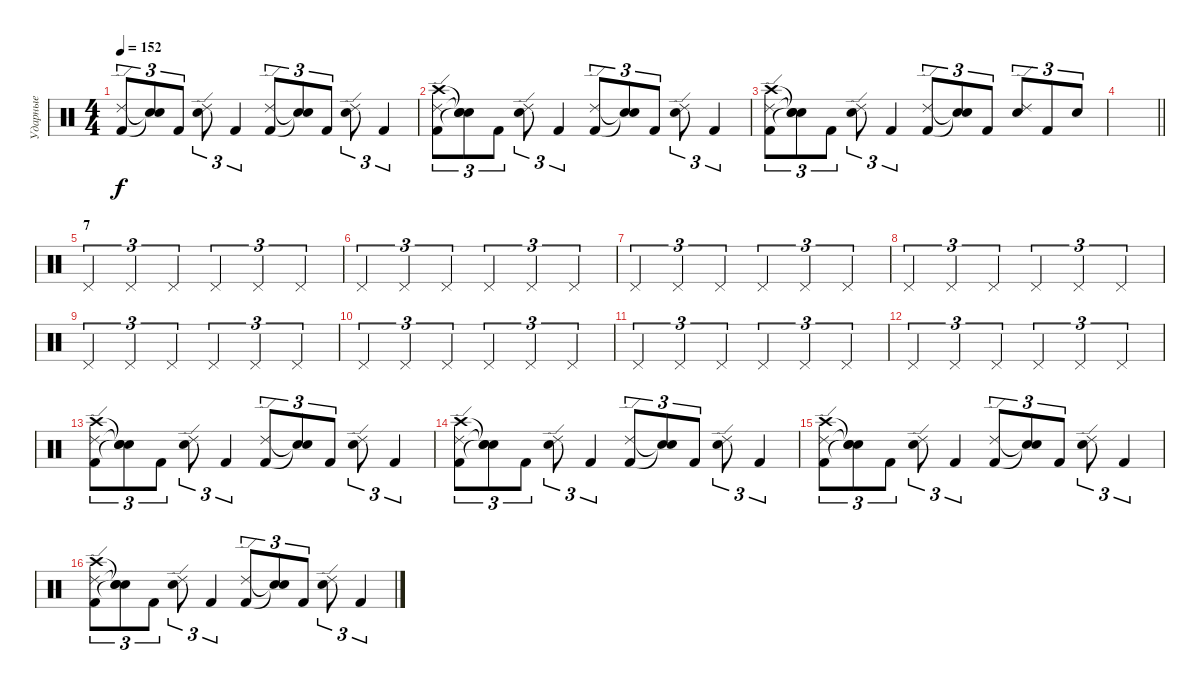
\track ("Ударные" "Ударные") {instrument percussion}
\staff {score}
\articulation defaults
\ts (4 4)
\tempo 152
\clef neutral
\ks c
("Kick (hit) 2" "Ride (edge) 2").8{tu (3 2) dy f} ("Snare (hit)"{t} "Snare (hit)"{t}).8{tu (3 2)} "Kick (hit) 2".8{tu (3 2)} ("Electric Snare (hit)" "Ride (edge) 2").8{tu (3 2)} "Kick (hit) 2".4{tu (3 2)} ("Kick (hit) 2" "Ride (edge) 2").8{tu (3 2)} ("Snare (hit)"{t} "Snare (hit)"{t}).8{tu (3 2)} "Kick (hit) 2".8{tu (3 2)} ("Electric Snare (hit)" "Ride (edge) 2").8{tu (3 2)} "Kick (hit) 2".4{tu (3 2)} |
("Kick (hit) 2" "Crash high (hit)" "Ride (edge) 2").8{tu (3 2)} ("Snare (hit)"{t} "Snare (hit)"{t} "Snare (hit)"{t}).8{tu (3 2)} "Kick (hit) 2".8{tu (3 2)} ("Electric Snare (hit)" "Ride (edge) 2").8{tu (3 2)} "Kick (hit) 2".4{tu (3 2)} ("Kick (hit) 2" "Ride (edge) 2").8{tu (3 2)} ("Snare (hit)"{t} "Snare (hit)"{t}).8{tu (3 2)} "Kick (hit) 2".8{tu (3 2)} ("Electric Snare (hit)" "Ride (edge) 2").8{tu (3 2)} "Kick (hit) 2".4{tu (3 2)} |
("Kick (hit) 2" "Crash high (hit)" "Ride (edge) 2").8{tu (3 2)} ("Snare (hit)"{t} "Snare (hit)"{t} "Snare (hit)"{t}).8{tu (3 2)} "Kick (hit) 2".8{tu (3 2)} ("Electric Snare (hit)" "Ride (edge) 2").8{tu (3 2)} "Kick (hit) 2".4{tu (3 2)} ("Kick (hit) 2" "Ride (edge) 2").8{tu (3 2)} ("Snare (hit)"{t} "Snare (hit)"{t}).8{tu (3 2)} "Kick (hit) 2".8{tu (3 2)} ("Electric Snare (hit)" "Ride (edge) 2").8{tu (3 2)} "Kick (hit) 2".8{tu (3 2)} "Electric Snare (hit)".8{tu (3 2)} |
\barLineRight lightlight
|
\section ("" "7")
"Pedal Hi-Hat (hit)".4{tu (3 2)} "Pedal Hi-Hat (hit)".4{tu (3 2)} "Pedal Hi-Hat (hit)".4{tu (3 2)} "Pedal Hi-Hat (hit)".4{tu (3 2)} "Pedal Hi-Hat (hit)".4{tu (3 2)} "Pedal Hi-Hat (hit)".4{tu (3 2)} |
"Pedal Hi-Hat (hit)".4{tu (3 2)} "Pedal Hi-Hat (hit)".4{tu (3 2)} "Pedal Hi-Hat (hit)".4{tu (3 2)} "Pedal Hi-Hat (hit)".4{tu (3 2)} "Pedal Hi-Hat (hit)".4{tu (3 2)} "Pedal Hi-Hat (hit)".4{tu (3 2)} |
"Pedal Hi-Hat (hit)".4{tu (3 2)} "Pedal Hi-Hat (hit)".4{tu (3 2)} "Pedal Hi-Hat (hit)".4{tu (3 2)} "Pedal Hi-Hat (hit)".4{tu (3 2)} "Pedal Hi-Hat (hit)".4{tu (3 2)} "Pedal Hi-Hat (hit)".4{tu (3 2)} |
"Pedal Hi-Hat (hit)".4{tu (3 2)} "Pedal Hi-Hat (hit)".4{tu (3 2)} "Pedal Hi-Hat (hit)".4{tu (3 2)} "Pedal Hi-Hat (hit)".4{tu (3 2)} "Pedal Hi-Hat (hit)".4{tu (3 2)} "Pedal Hi-Hat (hit)".4{tu (3 2)} |
"Pedal Hi-Hat (hit)".4{tu (3 2)} "Pedal Hi-Hat (hit)".4{tu (3 2)} "Pedal Hi-Hat (hit)".4{tu (3 2)} "Pedal Hi-Hat (hit)".4{tu (3 2)} "Pedal Hi-Hat (hit)".4{tu (3 2)} "Pedal Hi-Hat (hit)".4{tu (3 2)} |
"Pedal Hi-Hat (hit)".4{tu (3 2)} "Pedal Hi-Hat (hit)".4{tu (3 2)} "Pedal Hi-Hat (hit)".4{tu (3 2)} "Pedal Hi-Hat (hit)".4{tu (3 2)} "Pedal Hi-Hat (hit)".4{tu (3 2)} "Pedal Hi-Hat (hit)".4{tu (3 2)} |
"Pedal Hi-Hat (hit)".4{tu (3 2)} "Pedal Hi-Hat (hit)".4{tu (3 2)} "Pedal Hi-Hat (hit)".4{tu (3 2)} "Pedal Hi-Hat (hit)".4{tu (3 2)} "Pedal Hi-Hat (hit)".4{tu (3 2)} "Pedal Hi-Hat (hit)".4{tu (3 2)} |
"Pedal Hi-Hat (hit)".4{tu (3 2)} "Pedal Hi-Hat (hit)".4{tu (3 2)} "Pedal Hi-Hat (hit)".4{tu (3 2)} "Pedal Hi-Hat (hit)".4{tu (3 2)} "Pedal Hi-Hat (hit)".4{tu (3 2)} "Pedal Hi-Hat (hit)".4{tu (3 2)} |
("Kick (hit) 2" "Crash high (hit)" "Ride (edge) 2").8{tu (3 2)} ("Snare (hit)"{t} "Snare (hit)"{t} "Snare (hit)"{t}).8{tu (3 2)} "Kick (hit) 2".8{tu (3 2)} ("Electric Snare (hit)" "Ride (edge) 2").8{tu (3 2)} "Kick (hit) 2".4{tu (3 2)} ("Kick (hit) 2" "Ride (edge) 2").8{tu (3 2)} ("Snare (hit)"{t} "Snare (hit)"{t}).8{tu (3 2)} "Kick (hit) 2".8{tu (3 2)} ("Electric Snare (hit)" "Ride (edge) 2").8{tu (3 2)} "Kick (hit) 2".4{tu (3 2)} |
("Kick (hit) 2" "Crash high (hit)" "Ride (edge) 2").8{tu (3 2)} ("Snare (hit)"{t} "Snare (hit)"{t} "Snare (hit)"{t}).8{tu (3 2)} "Kick (hit) 2".8{tu (3 2)} ("Electric Snare (hit)" "Ride (edge) 2").8{tu (3 2)} "Kick (hit) 2".4{tu (3 2)} ("Kick (hit) 2" "Ride (edge) 2").8{tu (3 2)} ("Snare (hit)"{t} "Snare (hit)"{t}).8{tu (3 2)} "Kick (hit) 2".8{tu (3 2)} ("Electric Snare (hit)" "Ride (edge) 2").8{tu (3 2)} "Kick (hit) 2".4{tu (3 2)} |
("Kick (hit) 2" "Crash high (hit)" "Ride (edge) 2").8{tu (3 2)} ("Snare (hit)"{t} "Snare (hit)"{t} "Snare (hit)"{t}).8{tu (3 2)} "Kick (hit) 2".8{tu (3 2)} ("Electric Snare (hit)" "Ride (edge) 2").8{tu (3 2)} "Kick (hit) 2".4{tu (3 2)} ("Kick (hit) 2" "Ride (edge) 2").8{tu (3 2)} ("Snare (hit)"{t} "Snare (hit)"{t}).8{tu (3 2)} "Kick (hit) 2".8{tu (3 2)} ("Electric Snare (hit)" "Ride (edge) 2").8{tu (3 2)} "Kick (hit) 2".4{tu (3 2)} |
("Kick (hit) 2" "Crash high (hit)" "Ride (edge) 2").8{tu (3 2)} ("Snare (hit)"{t} "Snare (hit)"{t} "Snare (hit)"{t}).8{tu (3 2)} "Kick (hit) 2".8{tu (3 2)} ("Electric Snare (hit)" "Ride (edge) 2").8{tu (3 2)} "Kick (hit) 2".4{tu (3 2)} ("Kick (hit) 2" "Ride (edge) 2").8{tu (3 2)} ("Snare (hit)"{t} "Snare (hit)"{t}).8{tu (3 2)} "Kick (hit) 2".8{tu (3 2)} ("Electric Snare (hit)" "Ride (edge) 2").8{tu (3 2)} "Kick (hit) 2".4{tu (3 2)}
